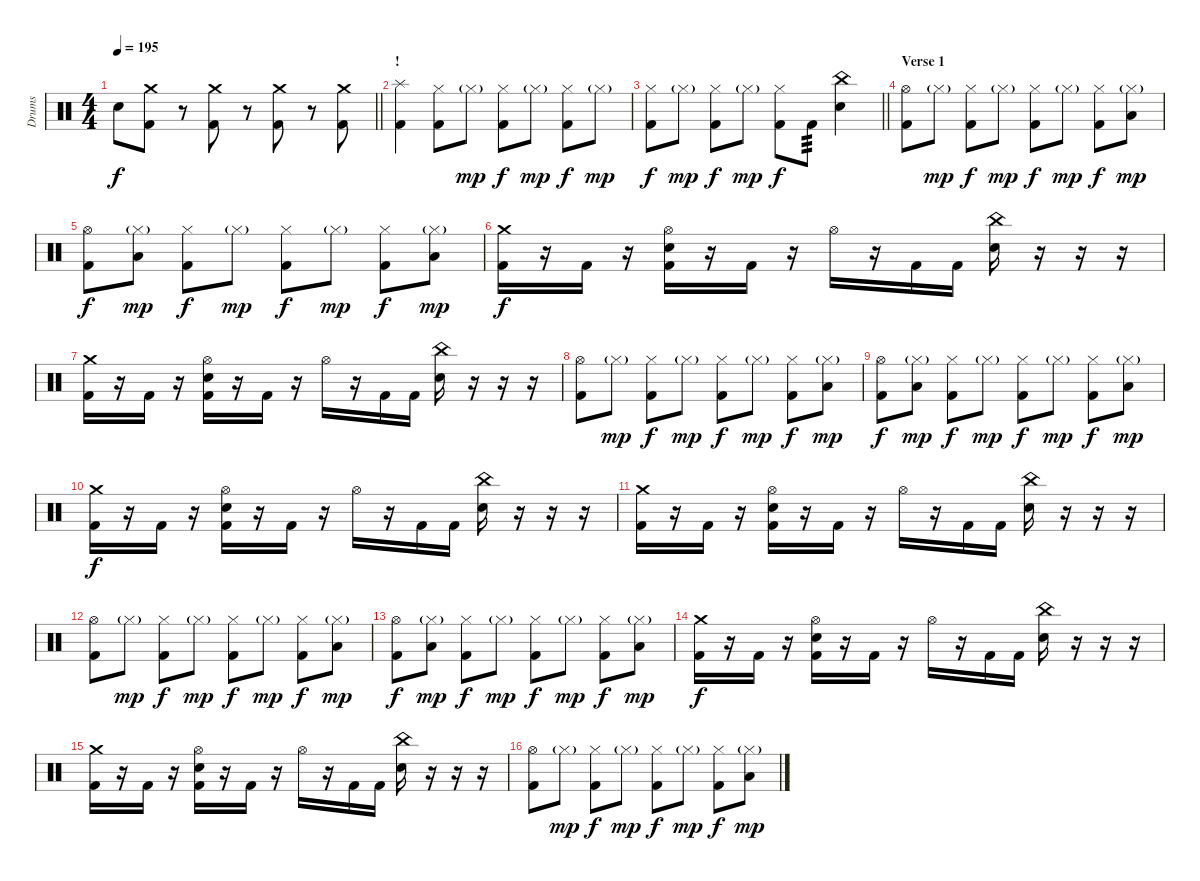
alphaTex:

\track ("Drums" "Drums") {instrument percussion}
\staff {score}
\articulation defaults
\ts (4 4)
\tempo 195
\clef neutral
\barLineRight lightlight
\ks c "Snare (hit) 2".8{dy f}
("Crash medium (hit)" "Kick (hit) 2").8 r.8 ("Crash medium (hit)" "Kick (hit) 2").8 r.8 ("Crash medium (hit)" "Kick (hit) 2").8 r.8 ("Crash medium (hit)" "Kick (hit) 2").8 |
\section ("" "!")
("Splash (hit)" "Kick (hit) 2").4 ("Hi-Hat (closed)" "Kick (hit) 2").8 "Hi-Hat (closed)"{g}.8{dy mp} ("Hi-Hat (closed)" "Kick (hit) 2").8{dy f} "Hi-Hat (closed)"{g}.8{dy mp} ("Hi-Hat (closed)" "Kick (hit) 2").8{dy f} "Hi-Hat (closed)"{g}.8{dy mp} |
\barLineRight lightlight
("Hi-Hat (closed)" "Kick (hit) 2").8{dy f} "Hi-Hat (closed)"{g}.8{dy mp} ("Hi-Hat (closed)" "Kick (hit) 2").8{dy f} "Hi-Hat (closed)"{g}.8{dy mp} ("Hi-Hat (closed)" "Kick (hit) 2").8{dy f} "Kick (hit) 2".8{tp 3} ("China (hit)" "Snare (hit) 2").4 |
\section ("" "Verse 1")
("Hi-Hat (open)" "Kick (hit) 2").8 "Hi-Hat (closed)"{g}.8{dy mp} ("Hi-Hat (closed)" "Kick (hit) 2").8{dy f} "Hi-Hat (closed)"{g}.8{dy mp} ("Hi-Hat (closed)" "Kick (hit) 2").8{dy f} "Hi-Hat (closed)"{g}.8{dy mp} ("Hi-Hat (closed)" "Kick (hit) 2").8{dy f} ("Hi-Hat (closed)"{g} "Low Tom (hit)").8{dy mp} |
("Hi-Hat (open)" "Kick (hit) 2").8{dy f} ("Hi-Hat (closed)"{g} "Low Tom (hit)").8{dy mp} ("Hi-Hat (closed)" "Kick (hit) 2").8{dy f} "Hi-Hat (closed)"{g}.8{dy mp} ("Hi-Hat (closed)" "Kick (hit) 2").8{dy f} "Hi-Hat (closed)"{g}.8{dy mp} ("Hi-Hat (closed)" "Kick (hit) 2").8{dy f} ("Hi-Hat (closed)"{g} "Low Tom (hit)").8{dy mp} |
("Crash medium (hit)" "Kick (hit) 2").16{dy f} r.16 "Kick (hit) 2".16 r.16 ("Hi-Hat (open)" "Snare (hit) 2" "Kick (hit) 2").16 r.16 "Kick (hit) 2".16 r.16 "Hi-Hat (open)".16 r.16 "Kick (hit) 2".16 "Kick (hit) 2".16 ("China (hit)" "Snare (hit) 2").16 r.16 r.16 r.16 |
("Crash medium (hit)" "Kick (hit) 2").16 r.16 "Kick (hit) 2".16 r.16 ("Hi-Hat (open)" "Snare (hit) 2" "Kick (hit) 2").16 r.16 "Kick (hit) 2".16 r.16 "Hi-Hat (open)".16 r.16 "Kick (hit) 2".16 "Kick (hit) 2".16 ("China (hit)" "Snare (hit) 2").16 r.16 r.16 r.16 |
("Hi-Hat (open)" "Kick (hit) 2").8 "Hi-Hat (closed)"{g}.8{dy mp} ("Hi-Hat (closed)" "Kick (hit) 2").8{dy f} "Hi-Hat (closed)"{g}.8{dy mp} ("Hi-Hat (closed)" "Kick (hit) 2").8{dy f} "Hi-Hat (closed)"{g}.8{dy mp} ("Hi-Hat (closed)" "Kick (hit) 2").8{dy f} ("Hi-Hat (closed)"{g} "Low Tom (hit)").8{dy mp} |
("Hi-Hat (open)" "Kick (hit) 2").8{dy f} ("Hi-Hat (closed)"{g} "Low Tom (hit)").8{dy mp} ("Hi-Hat (closed)" "Kick (hit) 2").8{dy f} "Hi-Hat (closed)"{g}.8{dy mp} ("Hi-Hat (closed)" "Kick (hit) 2").8{dy f} "Hi-Hat (closed)"{g}.8{dy mp} ("Hi-Hat (closed)" "Kick (hit) 2").8{dy f} ("Hi-Hat (closed)"{g} "Low Tom (hit)").8{dy mp} |
("Crash medium (hit)" "Kick (hit) 2").16{dy f} r.16 "Kick (hit) 2".16 r.16 ("Hi-Hat (open)" "Snare (hit) 2" "Kick (hit) 2").16 r.16 "Kick (hit) 2".16 r.16 "Hi-Hat (open)".16 r.16 "Kick (hit) 2".16 "Kick (hit) 2".16 ("China (hit)" "Snare (hit) 2").16 r.16 r.16 r.16 |
("Crash medium (hit)" "Kick (hit) 2").16 r.16 "Kick (hit) 2".16 r.16 ("Hi-Hat (open)" "Snare (hit) 2" "Kick (hit) 2").16 r.16 "Kick (hit) 2".16 r.16 "Hi-Hat (open)".16 r.16 "Kick (hit) 2".16 "Kick (hit) 2".16 ("China (hit)" "Snare (hit) 2").16 r.16 r.16 r.16 |
("Hi-Hat (open)" "Kick (hit) 2").8 "Hi-Hat (closed)"{g}.8{dy mp} ("Hi-Hat (closed)" "Kick (hit) 2").8{dy f} "Hi-Hat (closed)"{g}.8{dy mp} ("Hi-Hat (closed)" "Kick (hit) 2").8{dy f} "Hi-Hat (closed)"{g}.8{dy mp} ("Hi-Hat (closed)" "Kick (hit) 2").8{dy f} ("Hi-Hat (closed)"{g} "Low Tom (hit)").8{dy mp} |
("Hi-Hat (open)" "Kick (hit) 2").8{dy f} ("Hi-Hat (closed)"{g} "Low Tom (hit)").8{dy mp} ("Hi-Hat (closed)" "Kick (hit) 2").8{dy f} "Hi-Hat (closed)"{g}.8{dy mp} ("Hi-Hat (closed)" "Kick (hit) 2").8{dy f} "Hi-Hat (closed)"{g}.8{dy mp} ("Hi-Hat (closed)" "Kick (hit) 2").8{dy f} ("Hi-Hat (closed)"{g} "Low Tom (hit)").8{dy mp} |
("Crash medium (hit)" "Kick (hit) 2").16{dy f} r.16 "Kick (hit) 2".16 r.16 ("Hi-Hat (open)" "Snare (hit) 2" "Kick (hit) 2").16 r.16 "Kick (hit) 2".16 r.16 "Hi-Hat (open)".16 r.16 "Kick (hit) 2".16 "Kick (hit) 2".16 ("China (hit)" "Snare (hit) 2").16 r.16 r.16 r.16 |
("Crash medium (hit)" "Kick (hit) 2").16 r.16 "Kick (hit) 2".16 r.16 ("Hi-Hat (open)" "Snare (hit) 2" "Kick (hit) 2").16 r.16 "Kick (hit) 2".16 r.16 "Hi-Hat (open)".16 r.16 "Kick (hit) 2".16 "Kick (hit) 2".16 ("China (hit)" "Snare (hit) 2").16 r.16 r.16 r.16 |
("Hi-Hat (open)" "Kick (hit) 2").8 "Hi-Hat (closed)"{g}.8{dy mp} ("Hi-Hat (closed)" "Kick (hit) 2").8{dy f} "Hi-Hat (closed)"{g}.8{dy mp} ("Hi-Hat (closed)" "Kick (hit) 2").8{dy f} "Hi-Hat (closed)"{g}.8{dy mp} ("Hi-Hat (closed)" "Kick (hit) 2").8{dy f} ("Hi-Hat (closed)"{g} "Low Tom (hit)").8{dy mp}
